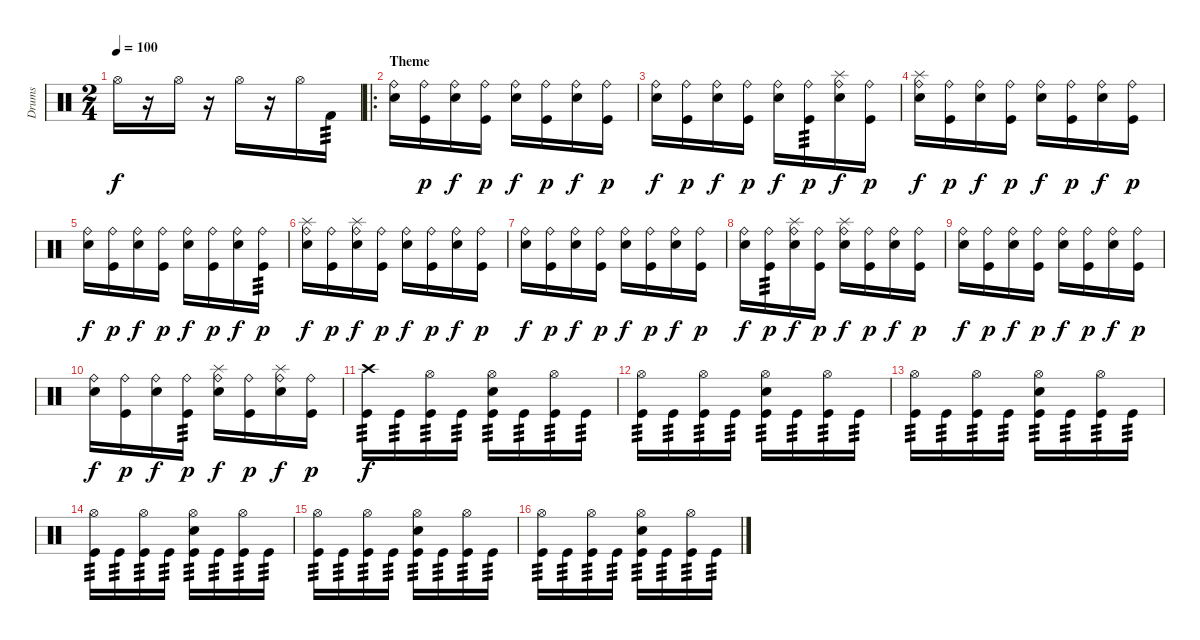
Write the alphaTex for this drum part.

\track ("Drums" "Drums") {instrument percussion}
\staff {score}
\articulation defaults
\ts (2 4)
\tempo 100
\clef neutral
\ks c "Hi-Hat (open)".16{dy f}
r.16 "Hi-Hat (open)".16 r.16 "Hi-Hat (open)".16 r.16 "Hi-Hat (open)".16 "Kick (hit) 2".16{tp 3} |
\ro
\section ("" "Theme")
("Electric Snare (hit)" "Ride (bell)").16 ("Kick (hit)" "Ride (bell)").16{dy p} ("Electric Snare (hit)" "Ride (bell)").16{dy f} ("Kick (hit)" "Ride (bell)").16{dy p} ("Electric Snare (hit)" "Ride (bell)").16{dy f} ("Kick (hit)" "Ride (bell)").16{dy p} ("Electric Snare (hit)" "Ride (bell)").16{dy f} ("Kick (hit)" "Ride (bell)").16{dy p} |
("Electric Snare (hit)" "Ride (bell)").16{dy f} ("Kick (hit)" "Ride (bell)").16{dy p} ("Electric Snare (hit)" "Ride (bell)").16{dy f} ("Kick (hit)" "Ride (bell)").16{dy p} ("Electric Snare (hit)" "Ride (bell)").16{dy f} ("Kick (hit)" "Ride (bell)").16{tp 3 dy p} ("Electric Snare (hit)" "Splash (hit)" "Ride (bell)").16{dy f} ("Kick (hit)" "Ride (bell)").16{dy p} |
("Electric Snare (hit)" "Splash (hit)" "Ride (bell)").16{dy f} ("Kick (hit)" "Ride (bell)").16{dy p} ("Electric Snare (hit)" "Ride (bell)").16{dy f} ("Kick (hit)" "Ride (bell)").16{dy p} ("Electric Snare (hit)" "Ride (bell)").16{dy f} ("Kick (hit)" "Ride (bell)").16{dy p} ("Electric Snare (hit)" "Ride (bell)").16{dy f} ("Kick (hit)" "Ride (bell)").16{dy p} |
("Electric Snare (hit)" "Ride (bell)").16{dy f} ("Kick (hit)" "Ride (bell)").16{dy p} ("Electric Snare (hit)" "Ride (bell)").16{dy f} ("Kick (hit)" "Ride (bell)").16{dy p} ("Electric Snare (hit)" "Ride (bell)").16{dy f} ("Kick (hit)" "Ride (bell)").16{dy p} ("Electric Snare (hit)" "Ride (bell)").16{dy f} ("Kick (hit)" "Ride (bell)").16{tp 3 dy p} |
("Electric Snare (hit)" "Splash (hit)" "Ride (bell)").16{dy f} ("Kick (hit)" "Ride (bell)").16{dy p} ("Electric Snare (hit)" "Splash (hit)" "Ride (bell)").16{dy f} ("Kick (hit)" "Ride (bell)").16{dy p} ("Electric Snare (hit)" "Ride (bell)").16{dy f} ("Kick (hit)" "Ride (bell)").16{dy p} ("Electric Snare (hit)" "Ride (bell)").16{dy f} ("Kick (hit)" "Ride (bell)").16{dy p} |
("Electric Snare (hit)" "Ride (bell)").16{dy f} ("Kick (hit)" "Ride (bell)").16{dy p} ("Electric Snare (hit)" "Ride (bell)").16{dy f} ("Kick (hit)" "Ride (bell)").16{dy p} ("Electric Snare (hit)" "Ride (bell)").16{dy f} ("Kick (hit)" "Ride (bell)").16{dy p} ("Electric Snare (hit)" "Ride (bell)").16{dy f} ("Kick (hit)" "Ride (bell)").16{dy p} |
("Electric Snare (hit)" "Ride (bell)").16{dy f} ("Kick (hit)" "Ride (bell)").16{tp 3 dy p} ("Electric Snare (hit)" "Splash (hit)" "Ride (bell)").16{dy f} ("Kick (hit)" "Ride (bell)").16{dy p} ("Electric Snare (hit)" "Splash (hit)" "Ride (bell)").16{dy f} ("Kick (hit)" "Ride (bell)").16{dy p} ("Electric Snare (hit)" "Ride (bell)").16{dy f} ("Kick (hit)" "Ride (bell)").16{dy p} |
("Electric Snare (hit)" "Ride (bell)").16{dy f} ("Kick (hit)" "Ride (bell)").16{dy p} ("Electric Snare (hit)" "Ride (bell)").16{dy f} ("Kick (hit)" "Ride (bell)").16{dy p} ("Electric Snare (hit)" "Ride (bell)").16{dy f} ("Kick (hit)" "Ride (bell)").16{dy p} ("Electric Snare (hit)" "Ride (bell)").16{dy f} ("Kick (hit)" "Ride (bell)").16{dy p} |
("Electric Snare (hit)" "Ride (bell)").16{dy f} ("Kick (hit)" "Ride (bell)").16{dy p} ("Electric Snare (hit)" "Ride (bell)").16{dy f} ("Kick (hit)" "Ride (bell)").16{tp 3 dy p} ("Electric Snare (hit)" "Splash (hit)" "Ride (bell)").16{dy f} ("Kick (hit)" "Ride (bell)").16{dy p} ("Electric Snare (hit)" "Splash (hit)" "Ride (bell)").16{dy f} ("Kick (hit)" "Ride (bell)").16{dy p} |
("Kick (hit)" "Crash high (hit)").16{tp 3 dy f} "Kick (hit)".16{tp 3} ("Kick (hit)" "Hi-Hat (open)").16{tp 3} "Kick (hit)".16{tp 3} ("Kick (hit)" "Hi-Hat (open)" "Electric Snare (hit)").16{tp 3} "Kick (hit)".16{tp 3} ("Kick (hit)" "Hi-Hat (open)").16{tp 3} "Kick (hit)".16{tp 3} |
("Kick (hit)" "Hi-Hat (open)").16{tp 3} "Kick (hit)".16{tp 3} ("Kick (hit)" "Hi-Hat (open)").16{tp 3} "Kick (hit)".16{tp 3} ("Kick (hit)" "Hi-Hat (open)" "Electric Snare (hit)").16{tp 3} "Kick (hit)".16{tp 3} ("Kick (hit)" "Hi-Hat (open)").16{tp 3} "Kick (hit)".16{tp 3} |
("Kick (hit)" "Hi-Hat (open)").16{tp 3} "Kick (hit)".16{tp 3} ("Kick (hit)" "Hi-Hat (open)").16{tp 3} "Kick (hit)".16{tp 3} ("Kick (hit)" "Hi-Hat (open)" "Electric Snare (hit)").16{tp 3} "Kick (hit)".16{tp 3} ("Kick (hit)" "Hi-Hat (open)").16{tp 3} "Kick (hit)".16{tp 3} |
("Kick (hit)" "Hi-Hat (open)").16{tp 3} "Kick (hit)".16{tp 3} ("Kick (hit)" "Hi-Hat (open)").16{tp 3} "Kick (hit)".16{tp 3} ("Kick (hit)" "Hi-Hat (open)" "Electric Snare (hit)").16{tp 3} "Kick (hit)".16{tp 3} ("Kick (hit)" "Hi-Hat (open)").16{tp 3} "Kick (hit)".16{tp 3} |
("Kick (hit)" "Hi-Hat (open)").16{tp 3} "Kick (hit)".16{tp 3} ("Kick (hit)" "Hi-Hat (open)").16{tp 3} "Kick (hit)".16{tp 3} ("Kick (hit)" "Hi-Hat (open)" "Electric Snare (hit)").16{tp 3} "Kick (hit)".16{tp 3} ("Kick (hit)" "Hi-Hat (open)").16{tp 3} "Kick (hit)".16{tp 3} |
("Kick (hit)" "Hi-Hat (open)").16{tp 3} "Kick (hit)".16{tp 3} ("Kick (hit)" "Hi-Hat (open)").16{tp 3} "Kick (hit)".16{tp 3} ("Kick (hit)" "Hi-Hat (open)" "Electric Snare (hit)").16{tp 3} "Kick (hit)".16{tp 3} ("Kick (hit)" "Hi-Hat (open)").16{tp 3} "Kick (hit)".16{tp 3}
